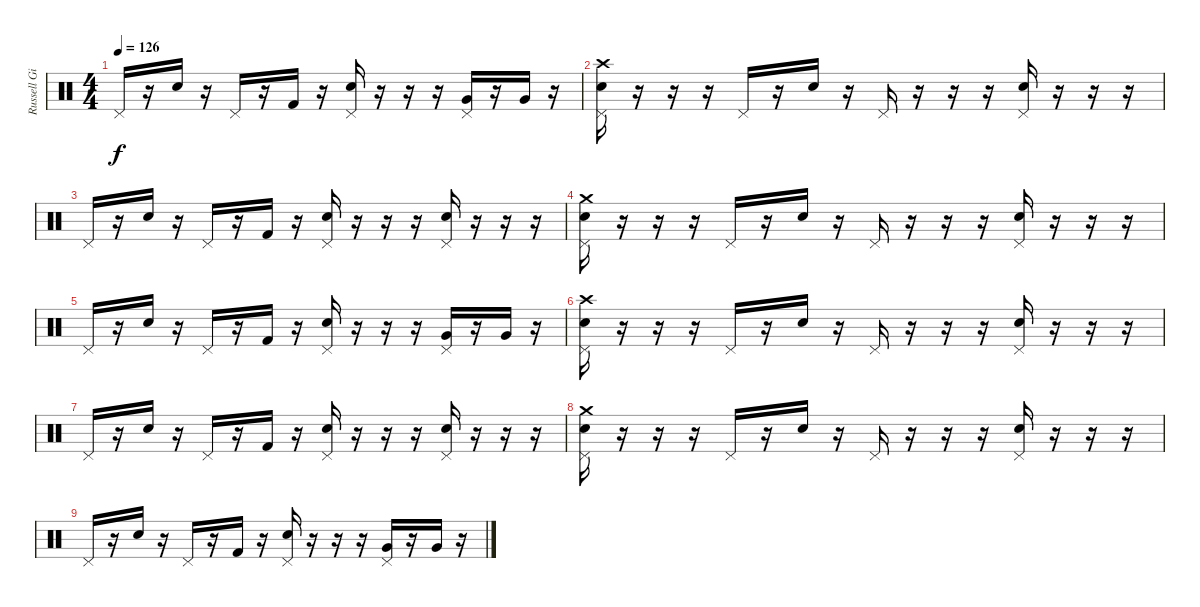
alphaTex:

\track ("Russell Gilbrook - Drums" "Russell Gi") {instrument percussion}
\staff {score}
\articulation defaults
\ts (4 4)
\tempo 126
\clef neutral
\ks c "Pedal Hi-Hat (hit)".16{dy f}
r.16 "Snare (hit) 2".16 r.16 "Pedal Hi-Hat (hit)".16 r.16 "Kick (hit) 2".16 r.16 ("Pedal Hi-Hat (hit)" "Snare (hit) 2").16 r.16 r.16 r.16 ("Very Low Tom (hit)" "Pedal Hi-Hat (hit)").16 r.16 "Very Low Tom (hit)".16 r.16 |
("Crash high (hit)" "Pedal Hi-Hat (hit)" "Snare (hit) 2").16{volume 4} r.16 r.16 r.16 "Pedal Hi-Hat (hit)".16 r.16 "Snare (hit) 2".16 r.16 "Pedal Hi-Hat (hit)".16 r.16 r.16 r.16 ("Pedal Hi-Hat (hit)" "Snare (hit) 2").16 r.16 r.16 r.16 |
"Pedal Hi-Hat (hit)".16 r.16 "Snare (hit) 2".16 r.16 "Pedal Hi-Hat (hit)".16 r.16 "Kick (hit) 2".16 r.16 ("Pedal Hi-Hat (hit)" "Snare (hit) 2").16 r.16 r.16 r.16 ("Pedal Hi-Hat (hit)" "Snare (hit) 2").16 r.16 r.16 r.16 |
("Crash medium (hit)" "Pedal Hi-Hat (hit)" "Snare (hit) 2").16 r.16 r.16 r.16 "Pedal Hi-Hat (hit)".16 r.16 "Snare (hit) 2".16 r.16 "Pedal Hi-Hat (hit)".16 r.16 r.16 r.16 ("Pedal Hi-Hat (hit)" "Snare (hit) 2").16 r.16 r.16 r.16 |
"Pedal Hi-Hat (hit)".16 r.16 "Snare (hit) 2".16 r.16 "Pedal Hi-Hat (hit)".16 r.16 "Kick (hit) 2".16 r.16 ("Pedal Hi-Hat (hit)" "Snare (hit) 2").16 r.16 r.16 r.16 ("Very Low Tom (hit)" "Pedal Hi-Hat (hit)").16 r.16 "Very Low Tom (hit)".16 r.16 |
("Crash high (hit)" "Pedal Hi-Hat (hit)" "Snare (hit) 2").16{volume 0} r.16 r.16 r.16 "Pedal Hi-Hat (hit)".16 r.16 "Snare (hit) 2".16 r.16 "Pedal Hi-Hat (hit)".16 r.16 r.16 r.16 ("Pedal Hi-Hat (hit)" "Snare (hit) 2").16 r.16 r.16 r.16 |
"Pedal Hi-Hat (hit)".16 r.16 "Snare (hit) 2".16 r.16 "Pedal Hi-Hat (hit)".16 r.16 "Kick (hit) 2".16 r.16 ("Pedal Hi-Hat (hit)" "Snare (hit) 2").16 r.16 r.16 r.16 ("Pedal Hi-Hat (hit)" "Snare (hit) 2").16 r.16 r.16 r.16 |
("Crash medium (hit)" "Pedal Hi-Hat (hit)" "Snare (hit) 2").16 r.16 r.16 r.16 "Pedal Hi-Hat (hit)".16 r.16 "Snare (hit) 2".16 r.16 "Pedal Hi-Hat (hit)".16 r.16 r.16 r.16 ("Pedal Hi-Hat (hit)" "Snare (hit) 2").16 r.16 r.16 r.16 |
"Pedal Hi-Hat (hit)".16 r.16 "Snare (hit) 2".16 r.16 "Pedal Hi-Hat (hit)".16 r.16 "Kick (hit) 2".16 r.16 ("Pedal Hi-Hat (hit)" "Snare (hit) 2").16 r.16 r.16 r.16 ("Very Low Tom (hit)" "Pedal Hi-Hat (hit)").16 r.16 "Very Low Tom (hit)".16 r.16
